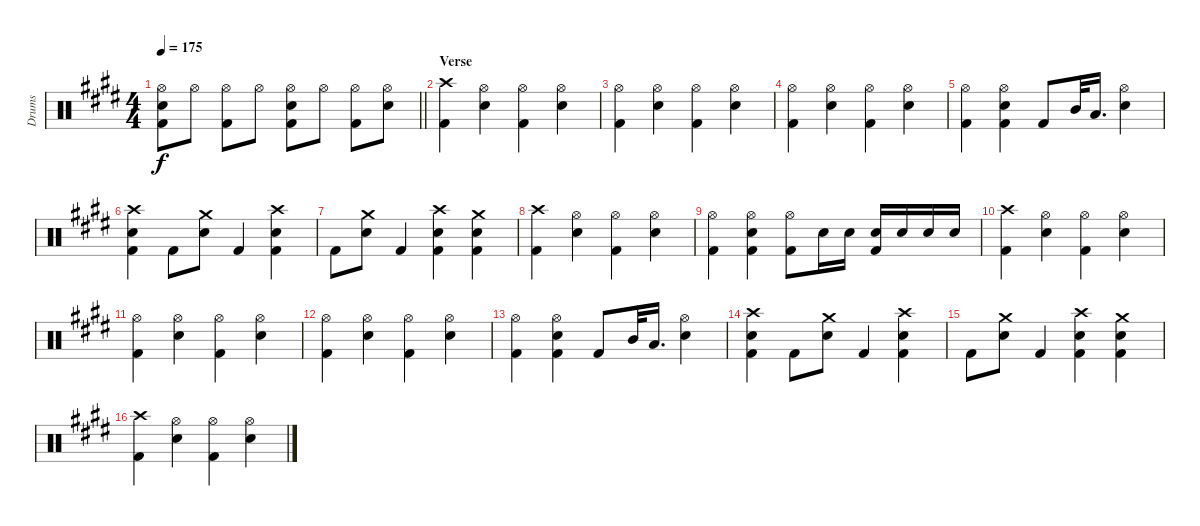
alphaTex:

\track ("Drums" "Drums") {instrument percussion}
\staff {score}
\articulation defaults
\ts (4 4)
\tempo 175
\clef neutral
\barLineRight lightlight
\ks e
("Hi-Hat (open)" "Electric Snare (hit)" "Kick (hit) 2").8{dy f} "Hi-Hat (open)".8 ("Hi-Hat (open)" "Kick (hit) 2").8 "Hi-Hat (open)".8 ("Hi-Hat (open)" "Electric Snare (hit)" "Kick (hit) 2").8 "Hi-Hat (open)".8 ("Hi-Hat (open)" "Kick (hit) 2").8 ("Hi-Hat (open)" "Electric Snare (hit)").8 |
\section ("" "Verse")
("Crash high (hit)" "Kick (hit) 2").4 ("Hi-Hat (open)" "Electric Snare (hit)").4 ("Hi-Hat (open)" "Kick (hit) 2").4 ("Hi-Hat (open)" "Electric Snare (hit)").4 |
("Hi-Hat (open)" "Kick (hit) 2").4 ("Hi-Hat (open)" "Electric Snare (hit)").4 ("Hi-Hat (open)" "Kick (hit) 2").4 ("Hi-Hat (open)" "Electric Snare (hit)").4 |
("Hi-Hat (open)" "Kick (hit) 2").4 ("Hi-Hat (open)" "Electric Snare (hit)").4 ("Hi-Hat (open)" "Kick (hit) 2").4 ("Hi-Hat (open)" "Electric Snare (hit)").4 |
("Hi-Hat (open)" "Kick (hit) 2").4 ("Hi-Hat (open)" "Electric Snare (hit)" "Kick (hit) 2").4 "Kick (hit) 2".8 "Mid Tom (hit)".32 "Low Tom (hit)".16{d} ("Hi-Hat (open)" "Electric Snare (hit)").4 |
("Crash high (hit)" "Electric Snare (hit)" "Kick (hit) 2").4 "Kick (hit) 2".8 ("Crash medium (hit)" "Electric Snare (hit)").8 "Kick (hit) 2".4 ("Crash high (hit)" "Electric Snare (hit)" "Kick (hit) 2").4 |
"Kick (hit) 2".8 ("Crash medium (hit)" "Electric Snare (hit)").8 "Kick (hit) 2".4 ("Crash high (hit)" "Electric Snare (hit)" "Kick (hit) 2").4 ("Crash medium (hit)" "Electric Snare (hit)" "Kick (hit) 2").4 |
("Crash high (hit)" "Kick (hit) 2").4 ("Hi-Hat (open)" "Electric Snare (hit)").4 ("Hi-Hat (open)" "Kick (hit) 2").4 ("Hi-Hat (open)" "Electric Snare (hit)").4 |
("Hi-Hat (open)" "Kick (hit) 2").4 ("Hi-Hat (open)" "Electric Snare (hit)" "Kick (hit) 2").4 ("Hi-Hat (open)" "Kick (hit) 2").8 "Electric Snare (hit)".16 "Electric Snare (hit)".16 ("Electric Snare (hit)" "Kick (hit) 2").16 "Electric Snare (hit)".16 "Electric Snare (hit)".16 "Electric Snare (hit)".16 |
("Crash high (hit)" "Kick (hit) 2").4 ("Hi-Hat (open)" "Electric Snare (hit)").4 ("Hi-Hat (open)" "Kick (hit) 2").4 ("Hi-Hat (open)" "Electric Snare (hit)").4 |
("Hi-Hat (open)" "Kick (hit) 2").4 ("Hi-Hat (open)" "Electric Snare (hit)").4 ("Hi-Hat (open)" "Kick (hit) 2").4 ("Hi-Hat (open)" "Electric Snare (hit)").4 |
("Hi-Hat (open)" "Kick (hit) 2").4 ("Hi-Hat (open)" "Electric Snare (hit)").4 ("Hi-Hat (open)" "Kick (hit) 2").4 ("Hi-Hat (open)" "Electric Snare (hit)").4 |
("Hi-Hat (open)" "Kick (hit) 2").4 ("Hi-Hat (open)" "Electric Snare (hit)" "Kick (hit) 2").4 "Kick (hit) 2".8 "Mid Tom (hit)".32 "Low Tom (hit)".16{d} ("Hi-Hat (open)" "Electric Snare (hit)").4 |
("Crash high (hit)" "Electric Snare (hit)" "Kick (hit) 2").4 "Kick (hit) 2".8 ("Crash medium (hit)" "Electric Snare (hit)").8 "Kick (hit) 2".4 ("Crash high (hit)" "Electric Snare (hit)" "Kick (hit) 2").4 |
"Kick (hit) 2".8 ("Crash medium (hit)" "Electric Snare (hit)").8 "Kick (hit) 2".4 ("Crash high (hit)" "Electric Snare (hit)" "Kick (hit) 2").4 ("Crash medium (hit)" "Electric Snare (hit)" "Kick (hit) 2").4 |
("Crash high (hit)" "Kick (hit) 2").4 ("Hi-Hat (open)" "Electric Snare (hit)").4 ("Hi-Hat (open)" "Kick (hit) 2").4 ("Hi-Hat (open)" "Electric Snare (hit)").4
